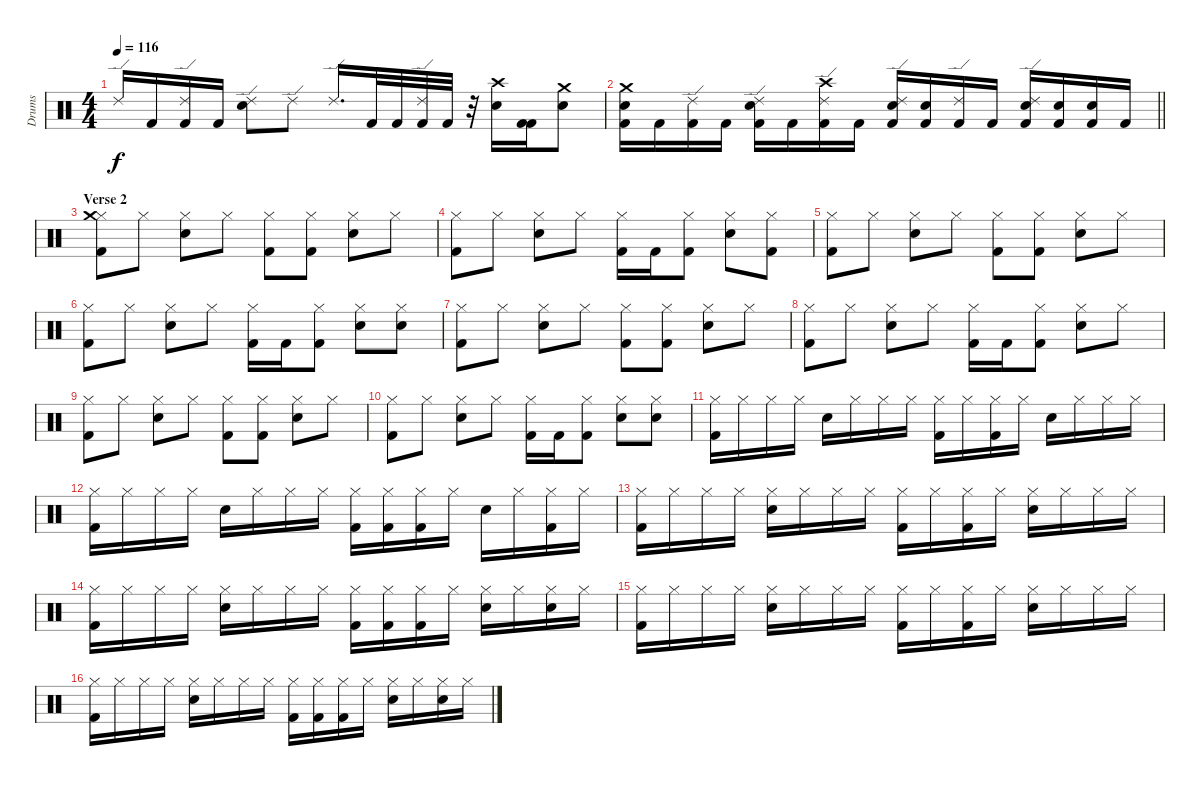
\track ("Drums" "Drums") {instrument percussion}
\staff {score}
\articulation defaults
\ts (4 4)
\tempo 116
\clef neutral
\ks c "Ride (edge) 2".16{dy f} "Kick (hit) 2".16
("Ride (edge) 2" "Kick (hit) 2").16 "Kick (hit) 2".16 ("Ride (edge) 2" "Snare (hit) 2").8 "Ride (edge) 2".8 "Ride (edge) 2".16{d} "Kick (hit) 2".32 "Kick (hit) 2".32 ("Ride (edge) 2" "Kick (hit) 2").32 "Kick (hit) 2".32 r.32 ("Snare (hit) 2" "Crash high (hit)").16 ("Kick (hit) 2" "Kick (hit) 2").16 ("Snare (hit) 2" "Crash medium (hit)").8 |
\barLineRight lightlight
("Kick (hit) 2" "Snare (hit) 2" "Crash medium (hit)").16 "Kick (hit) 2".16 ("Ride (edge) 2" "Kick (hit) 2").16 "Kick (hit) 2".16 ("Ride (edge) 2" "Kick (hit) 2" "Snare (hit) 2").16 "Kick (hit) 2".16 ("Ride (edge) 2" "Kick (hit) 2" "Crash high (hit)").16 "Kick (hit) 2".16 ("Ride (edge) 2" "Kick (hit) 2" "Snare (hit) 2").16 ("Kick (hit) 2" "Snare (hit) 2").16 ("Ride (edge) 2" "Kick (hit) 2").16 "Kick (hit) 2".16 ("Ride (edge) 2" "Kick (hit) 2" "Snare (hit) 2").16 ("Kick (hit) 2" "Snare (hit) 2").16 ("Kick (hit) 2" "Snare (hit) 2").16 "Kick (hit) 2".16 |
\section ("" "Verse 2")
("Hi-Hat (closed)" "Kick (hit) 2" "Crash medium (hit)").8 "Hi-Hat (closed)".8 ("Hi-Hat (closed)" "Snare (hit) 2").8 "Hi-Hat (closed)".8 ("Hi-Hat (closed)" "Kick (hit) 2").8 ("Hi-Hat (closed)" "Kick (hit) 2").8 ("Hi-Hat (closed)" "Snare (hit) 2").8 "Hi-Hat (closed)".8 |
("Hi-Hat (closed)" "Kick (hit) 2").8 "Hi-Hat (closed)".8 ("Hi-Hat (closed)" "Snare (hit) 2").8 "Hi-Hat (closed)".8 ("Hi-Hat (closed)" "Kick (hit) 2").16 "Kick (hit) 2".16 ("Hi-Hat (closed)" "Kick (hit) 2").8 ("Hi-Hat (closed)" "Snare (hit) 2").8 ("Hi-Hat (closed)" "Kick (hit) 2").8 |
("Hi-Hat (closed)" "Kick (hit) 2").8 "Hi-Hat (closed)".8 ("Hi-Hat (closed)" "Snare (hit) 2").8 "Hi-Hat (closed)".8 ("Hi-Hat (closed)" "Kick (hit) 2").8 ("Hi-Hat (closed)" "Kick (hit) 2").8 ("Hi-Hat (closed)" "Snare (hit) 2").8 "Hi-Hat (closed)".8 |
("Hi-Hat (closed)" "Kick (hit) 2").8 "Hi-Hat (closed)".8 ("Hi-Hat (closed)" "Snare (hit) 2").8 "Hi-Hat (closed)".8 ("Hi-Hat (closed)" "Kick (hit) 2").16 "Kick (hit) 2".16 ("Hi-Hat (closed)" "Kick (hit) 2").8 ("Hi-Hat (closed)" "Snare (hit) 2").8 ("Hi-Hat (closed)" "Snare (hit) 2").8 |
("Hi-Hat (closed)" "Kick (hit) 2").8 "Hi-Hat (closed)".8 ("Hi-Hat (closed)" "Snare (hit) 2").8 "Hi-Hat (closed)".8 ("Hi-Hat (closed)" "Kick (hit) 2").8 ("Hi-Hat (closed)" "Kick (hit) 2").8 ("Hi-Hat (closed)" "Snare (hit) 2").8 "Hi-Hat (closed)".8 |
("Hi-Hat (closed)" "Kick (hit) 2").8 "Hi-Hat (closed)".8 ("Hi-Hat (closed)" "Snare (hit) 2").8 "Hi-Hat (closed)".8 ("Hi-Hat (closed)" "Kick (hit) 2").16 "Kick (hit) 2".16 ("Hi-Hat (closed)" "Kick (hit) 2").8 ("Hi-Hat (closed)" "Snare (hit) 2").8 "Hi-Hat (closed)".8 |
("Hi-Hat (closed)" "Kick (hit) 2").8 "Hi-Hat (closed)".8 ("Hi-Hat (closed)" "Snare (hit) 2").8 "Hi-Hat (closed)".8 ("Hi-Hat (closed)" "Kick (hit) 2").8 ("Hi-Hat (closed)" "Kick (hit) 2").8 ("Hi-Hat (closed)" "Snare (hit) 2").8 "Hi-Hat (closed)".8 |
("Hi-Hat (closed)" "Kick (hit) 2").8 "Hi-Hat (closed)".8 ("Hi-Hat (closed)" "Snare (hit) 2").8 "Hi-Hat (closed)".8 ("Hi-Hat (closed)" "Kick (hit) 2").16 "Kick (hit) 2".16 ("Hi-Hat (closed)" "Kick (hit) 2").8 ("Hi-Hat (closed)" "Snare (hit) 2").8 ("Hi-Hat (closed)" "Snare (hit) 2").8 |
("Hi-Hat (closed)" "Kick (hit) 2").16 "Hi-Hat (closed)".16 "Hi-Hat (closed)".16 "Hi-Hat (closed)".16 "Snare (hit) 2".16 "Hi-Hat (closed)".16 "Hi-Hat (closed)".16 "Hi-Hat (closed)".16 ("Hi-Hat (closed)" "Kick (hit) 2").16 "Hi-Hat (closed)".16 ("Hi-Hat (closed)" "Kick (hit) 2").16 "Hi-Hat (closed)".16 "Snare (hit) 2".16 "Hi-Hat (closed)".16 "Hi-Hat (closed)".16 "Hi-Hat (closed)".16 |
("Hi-Hat (closed)" "Kick (hit) 2").16 "Hi-Hat (closed)".16 "Hi-Hat (closed)".16 "Hi-Hat (closed)".16 "Snare (hit) 2".16 "Hi-Hat (closed)".16 "Hi-Hat (closed)".16 "Hi-Hat (closed)".16 ("Hi-Hat (closed)" "Kick (hit) 2").16 ("Hi-Hat (closed)" "Kick (hit) 2").16 ("Hi-Hat (closed)" "Kick (hit) 2").16 "Hi-Hat (closed)".16 "Snare (hit) 2".16 "Hi-Hat (closed)".16 ("Hi-Hat (closed)" "Kick (hit) 2").16 "Hi-Hat (closed)".16 |
("Hi-Hat (closed)" "Kick (hit) 2").16 "Hi-Hat (closed)".16 "Hi-Hat (closed)".16 "Hi-Hat (closed)".16 ("Hi-Hat (closed)" "Snare (hit) 2").16 "Hi-Hat (closed)".16 "Hi-Hat (closed)".16 "Hi-Hat (closed)".16 ("Hi-Hat (closed)" "Kick (hit) 2").16 "Hi-Hat (closed)".16 ("Hi-Hat (closed)" "Kick (hit) 2").16 "Hi-Hat (closed)".16 ("Hi-Hat (closed)" "Snare (hit) 2").16 "Hi-Hat (closed)".16 "Hi-Hat (closed)".16 "Hi-Hat (closed)".16 |
("Hi-Hat (closed)" "Kick (hit) 2").16 "Hi-Hat (closed)".16 "Hi-Hat (closed)".16 "Hi-Hat (closed)".16 ("Hi-Hat (closed)" "Snare (hit) 2").16 "Hi-Hat (closed)".16 "Hi-Hat (closed)".16 "Hi-Hat (closed)".16 ("Hi-Hat (closed)" "Kick (hit) 2").16 ("Hi-Hat (closed)" "Kick (hit) 2").16 ("Hi-Hat (closed)" "Kick (hit) 2").16 "Hi-Hat (closed)".16 ("Hi-Hat (closed)" "Snare (hit) 2").16 "Hi-Hat (closed)".16 ("Hi-Hat (closed)" "Snare (hit) 2").16 "Hi-Hat (closed)".16 |
("Hi-Hat (closed)" "Kick (hit) 2").16 "Hi-Hat (closed)".16 "Hi-Hat (closed)".16 "Hi-Hat (closed)".16 ("Hi-Hat (closed)" "Snare (hit) 2").16 "Hi-Hat (closed)".16 "Hi-Hat (closed)".16 "Hi-Hat (closed)".16 ("Hi-Hat (closed)" "Kick (hit) 2").16 "Hi-Hat (closed)".16 ("Hi-Hat (closed)" "Kick (hit) 2").16 "Hi-Hat (closed)".16 ("Hi-Hat (closed)" "Snare (hit) 2").16 "Hi-Hat (closed)".16 "Hi-Hat (closed)".16 "Hi-Hat (closed)".16 |
("Hi-Hat (closed)" "Kick (hit) 2").16 "Hi-Hat (closed)".16 "Hi-Hat (closed)".16 "Hi-Hat (closed)".16 ("Hi-Hat (closed)" "Snare (hit) 2").16 "Hi-Hat (closed)".16 "Hi-Hat (closed)".16 "Hi-Hat (closed)".16 ("Hi-Hat (closed)" "Kick (hit) 2").16 ("Hi-Hat (closed)" "Kick (hit) 2").16 ("Hi-Hat (closed)" "Kick (hit) 2").16 "Hi-Hat (closed)".16 ("Hi-Hat (closed)" "Snare (hit) 2").16 "Hi-Hat (closed)".16 ("Hi-Hat (closed)" "Snare (hit) 2").16 "Hi-Hat (closed)".16
